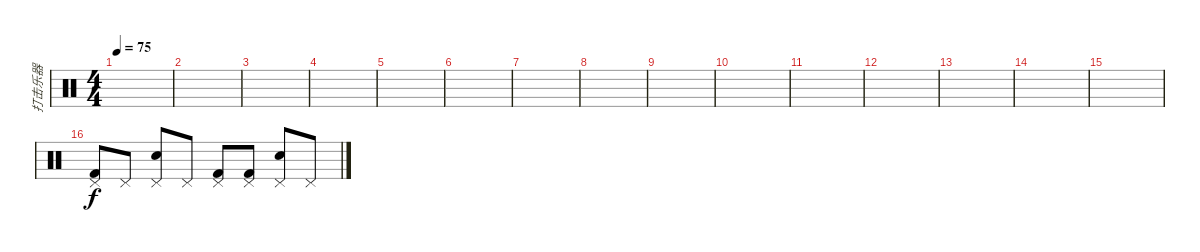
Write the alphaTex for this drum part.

\track ("打击乐器" "打击乐器") {instrument percussion}
\staff {score}
\articulation defaults
\ts (4 4)
\tempo 75
\clef neutral
\ks c
|
|
|
|
|
|
|
|
|
|
|
|
|
|
|
("Kick (hit) 2" "Pedal Hi-Hat (hit)").8 "Pedal Hi-Hat (hit)".8 ("Electric Snare (hit)" "Pedal Hi-Hat (hit)").8 "Pedal Hi-Hat (hit)".8 ("Kick (hit) 2" "Pedal Hi-Hat (hit)").8 ("Kick (hit) 2" "Pedal Hi-Hat (hit)").8 ("Electric Snare (hit)" "Pedal Hi-Hat (hit)").8 "Pedal Hi-Hat (hit)".8
